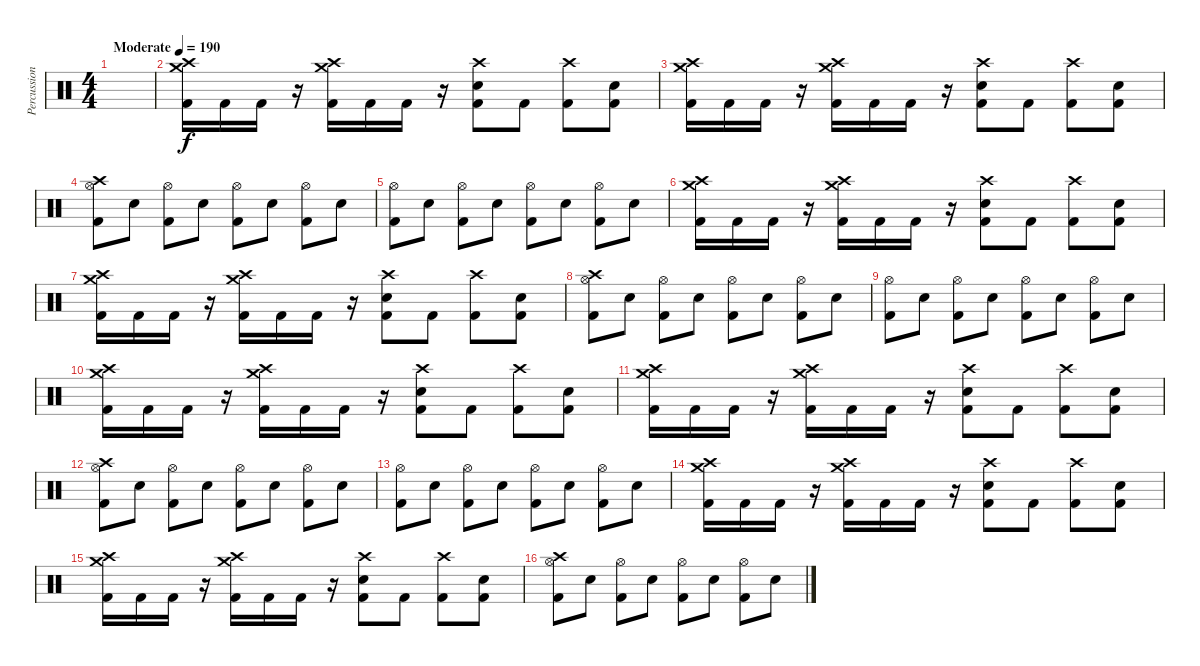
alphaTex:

\track ("Percussion" "Percussion") {instrument percussion}
\staff {score}
\articulation defaults
\ts (4 4)
\tempo (190 "Moderate")
\clef neutral
\ks c
|
("Crash medium (hit)" "Crash high (hit)" "Kick (hit) 2").16 "Kick (hit) 2".16 "Kick (hit) 2".16 r.16 ("Crash medium (hit)" "Crash high (hit)" "Kick (hit) 2").16 "Kick (hit) 2".16 "Kick (hit) 2".16 r.16 ("Crash high (hit)" "Electric Snare (hit)" "Kick (hit) 2").8 "Kick (hit) 2".8 ("Crash high (hit)" "Kick (hit) 2").8 ("Electric Snare (hit)" "Kick (hit) 2").8 |
("Crash medium (hit)" "Crash high (hit)" "Kick (hit) 2").16 "Kick (hit) 2".16 "Kick (hit) 2".16 r.16 ("Crash medium (hit)" "Crash high (hit)" "Kick (hit) 2").16 "Kick (hit) 2".16 "Kick (hit) 2".16 r.16 ("Crash high (hit)" "Electric Snare (hit)" "Kick (hit) 2").8 "Kick (hit) 2".8 ("Crash high (hit)" "Kick (hit) 2").8 ("Electric Snare (hit)" "Kick (hit) 2").8 |
("Crash high (hit)" "Hi-Hat (open)" "Kick (hit) 2").8 "Electric Snare (hit)".8 ("Hi-Hat (open)" "Kick (hit) 2").8 "Electric Snare (hit)".8 ("Hi-Hat (open)" "Kick (hit) 2").8 "Electric Snare (hit)".8 ("Hi-Hat (open)" "Kick (hit) 2").8 "Electric Snare (hit)".8 |
("Hi-Hat (open)" "Kick (hit) 2").8 "Electric Snare (hit)".8 ("Hi-Hat (open)" "Kick (hit) 2").8 "Electric Snare (hit)".8 ("Hi-Hat (open)" "Kick (hit) 2").8 "Electric Snare (hit)".8 ("Hi-Hat (open)" "Kick (hit) 2").8 "Electric Snare (hit)".8 |
("Crash medium (hit)" "Crash high (hit)" "Kick (hit) 2").16 "Kick (hit) 2".16 "Kick (hit) 2".16 r.16 ("Crash medium (hit)" "Crash high (hit)" "Kick (hit) 2").16 "Kick (hit) 2".16 "Kick (hit) 2".16 r.16 ("Crash high (hit)" "Electric Snare (hit)" "Kick (hit) 2").8 "Kick (hit) 2".8 ("Crash high (hit)" "Kick (hit) 2").8 ("Electric Snare (hit)" "Kick (hit) 2").8 |
("Crash medium (hit)" "Crash high (hit)" "Kick (hit) 2").16 "Kick (hit) 2".16 "Kick (hit) 2".16 r.16 ("Crash medium (hit)" "Crash high (hit)" "Kick (hit) 2").16 "Kick (hit) 2".16 "Kick (hit) 2".16 r.16 ("Crash high (hit)" "Electric Snare (hit)" "Kick (hit) 2").8 "Kick (hit) 2".8 ("Crash high (hit)" "Kick (hit) 2").8 ("Electric Snare (hit)" "Kick (hit) 2").8 |
("Crash high (hit)" "Hi-Hat (open)" "Kick (hit) 2").8 "Electric Snare (hit)".8 ("Hi-Hat (open)" "Kick (hit) 2").8 "Electric Snare (hit)".8 ("Hi-Hat (open)" "Kick (hit) 2").8 "Electric Snare (hit)".8 ("Hi-Hat (open)" "Kick (hit) 2").8 "Electric Snare (hit)".8 |
("Hi-Hat (open)" "Kick (hit) 2").8 "Electric Snare (hit)".8 ("Hi-Hat (open)" "Kick (hit) 2").8 "Electric Snare (hit)".8 ("Hi-Hat (open)" "Kick (hit) 2").8 "Electric Snare (hit)".8 ("Hi-Hat (open)" "Kick (hit) 2").8 "Electric Snare (hit)".8 |
("Crash medium (hit)" "Crash high (hit)" "Kick (hit) 2").16 "Kick (hit) 2".16 "Kick (hit) 2".16 r.16 ("Crash medium (hit)" "Crash high (hit)" "Kick (hit) 2").16 "Kick (hit) 2".16 "Kick (hit) 2".16 r.16 ("Crash high (hit)" "Electric Snare (hit)" "Kick (hit) 2").8 "Kick (hit) 2".8 ("Crash high (hit)" "Kick (hit) 2").8 ("Electric Snare (hit)" "Kick (hit) 2").8 |
("Crash medium (hit)" "Crash high (hit)" "Kick (hit) 2").16 "Kick (hit) 2".16 "Kick (hit) 2".16 r.16 ("Crash medium (hit)" "Crash high (hit)" "Kick (hit) 2").16 "Kick (hit) 2".16 "Kick (hit) 2".16 r.16 ("Crash high (hit)" "Electric Snare (hit)" "Kick (hit) 2").8 "Kick (hit) 2".8 ("Crash high (hit)" "Kick (hit) 2").8 ("Electric Snare (hit)" "Kick (hit) 2").8 |
("Crash high (hit)" "Hi-Hat (open)" "Kick (hit) 2").8 "Electric Snare (hit)".8 ("Hi-Hat (open)" "Kick (hit) 2").8 "Electric Snare (hit)".8 ("Hi-Hat (open)" "Kick (hit) 2").8 "Electric Snare (hit)".8 ("Hi-Hat (open)" "Kick (hit) 2").8 "Electric Snare (hit)".8 |
("Hi-Hat (open)" "Kick (hit) 2").8 "Electric Snare (hit)".8 ("Hi-Hat (open)" "Kick (hit) 2").8 "Electric Snare (hit)".8 ("Hi-Hat (open)" "Kick (hit) 2").8 "Electric Snare (hit)".8 ("Hi-Hat (open)" "Kick (hit) 2").8 "Electric Snare (hit)".8 |
("Crash medium (hit)" "Crash high (hit)" "Kick (hit) 2").16 "Kick (hit) 2".16 "Kick (hit) 2".16 r.16 ("Crash medium (hit)" "Crash high (hit)" "Kick (hit) 2").16 "Kick (hit) 2".16 "Kick (hit) 2".16 r.16 ("Crash high (hit)" "Electric Snare (hit)" "Kick (hit) 2").8 "Kick (hit) 2".8 ("Crash high (hit)" "Kick (hit) 2").8 ("Electric Snare (hit)" "Kick (hit) 2").8 |
("Crash medium (hit)" "Crash high (hit)" "Kick (hit) 2").16 "Kick (hit) 2".16 "Kick (hit) 2".16 r.16 ("Crash medium (hit)" "Crash high (hit)" "Kick (hit) 2").16 "Kick (hit) 2".16 "Kick (hit) 2".16 r.16 ("Crash high (hit)" "Electric Snare (hit)" "Kick (hit) 2").8 "Kick (hit) 2".8 ("Crash high (hit)" "Kick (hit) 2").8 ("Electric Snare (hit)" "Kick (hit) 2").8 |
("Crash high (hit)" "Hi-Hat (open)" "Kick (hit) 2").8 "Electric Snare (hit)".8 ("Hi-Hat (open)" "Kick (hit) 2").8 "Electric Snare (hit)".8 ("Hi-Hat (open)" "Kick (hit) 2").8 "Electric Snare (hit)".8 ("Hi-Hat (open)" "Kick (hit) 2").8 "Electric Snare (hit)".8
